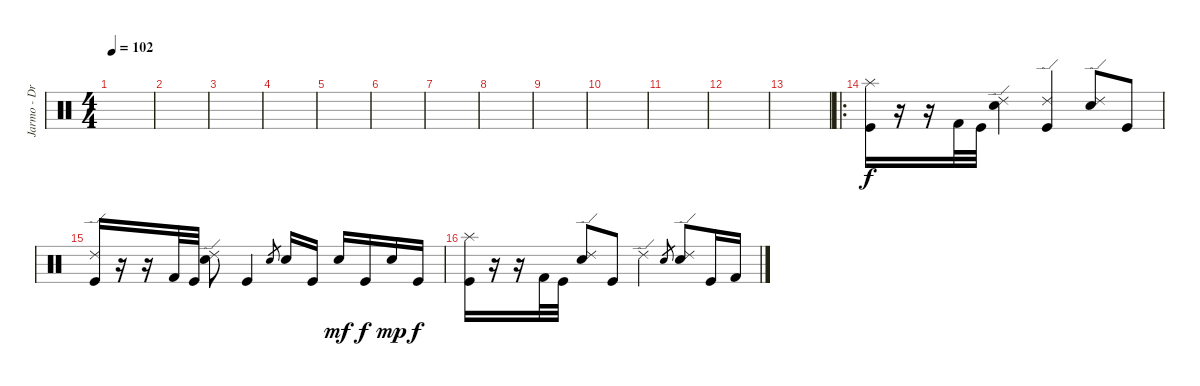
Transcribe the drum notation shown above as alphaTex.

\track ("Jarmo - Drums" "Jarmo - Dr") {instrument percussion}
\staff {score}
\articulation defaults
\ts (4 4)
\tempo 102
\clef neutral
\ks c
|
|
|
|
|
|
|
|
|
|
|
|
|
\ro
("Kick (hit)" "Splash (hit)").16{dy f} r.16 r.16 "Kick (hit) 2".32 "Kick (hit)".32 ("Electric Snare (hit)" "Ride (edge) 2").4 ("Kick (hit)" "Ride (edge) 2").4 ("Electric Snare (hit)" "Ride (edge) 2").8 "Kick (hit)".8 |
("Ride (edge) 2" "Kick (hit)").16 r.16 r.16 "Kick (hit) 2".32 "Kick (hit)".32 ("Electric Snare (hit)" "Ride (edge) 2").8 "Kick (hit)".4 "Snare (hit) 2".8{gr} "Electric Snare (hit)".16 "Kick (hit)".16 "Electric Snare (hit)".16{dy mf} "Kick (hit)".16{dy f} "Electric Snare (hit)".16{dy mp} "Kick (hit)".16{dy f} |
("Splash (hit)" "Kick (hit)").16 r.16 r.16 "Kick (hit) 2".32 "Kick (hit)".32 ("Electric Snare (hit)" "Ride (edge) 2").8 "Kick (hit)".8 "Ride (edge) 2".4 "Snare (hit) 2".8{gr} ("Electric Snare (hit)" "Ride (edge) 2").8 "Kick (hit)".16 "Kick (hit) 2".16
